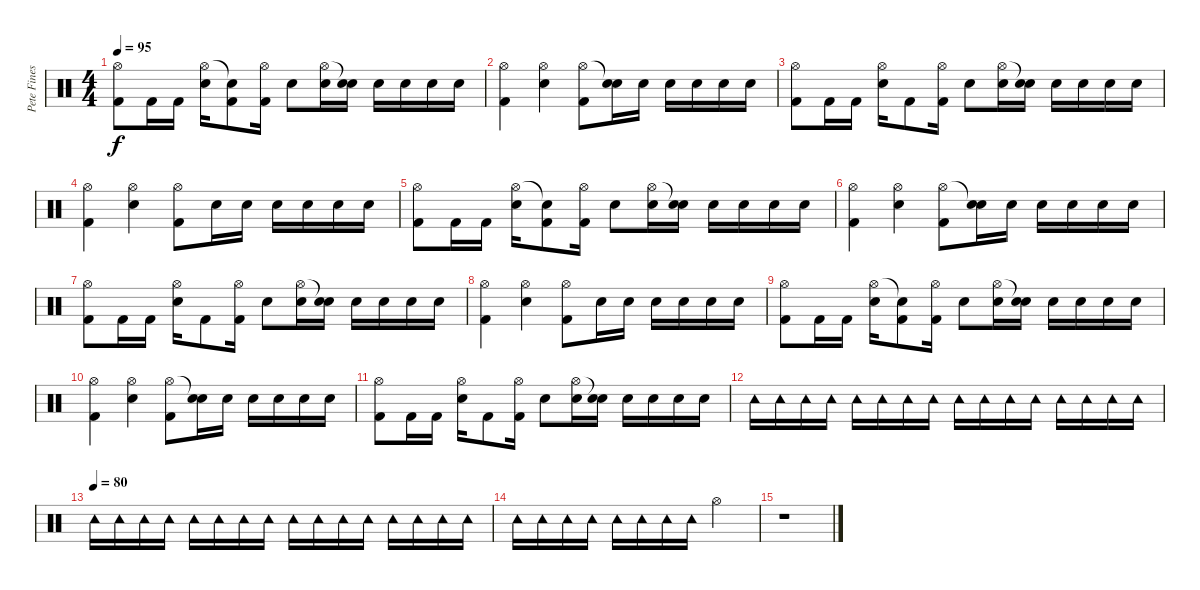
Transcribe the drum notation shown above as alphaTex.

\track ("Pete Finestone" "Pete Fines") {instrument percussion}
\staff {score}
\articulation defaults
\ts (4 4)
\tempo 95
\clef neutral
\ks c
("Hi-Hat (open)" "Kick (hit) 2").8{dy f} "Kick (hit) 2".16 "Kick (hit) 2".16 ("Hi-Hat (open)" "Snare (hit) 2").16 ("Snare (hit)"{t} "Kick (hit) 2").8 ("Hi-Hat (open)" "Kick (hit) 2").16 "Snare (hit) 2".8 ("Hi-Hat (open)" "Electric Snare (hit)").16 ("Snare (hit)"{t} "Electric Snare (hit)").16 "Electric Snare (hit)".16 "Electric Snare (hit)".16 "Electric Snare (hit)".16 "Electric Snare (hit)".16 |
("Hi-Hat (open)" "Kick (hit) 2").4 ("Hi-Hat (open)" "Electric Snare (hit)").4 ("Hi-Hat (open)" "Kick (hit) 2").8 ("Snare (hit)"{t} "Electric Snare (hit)").16 "Electric Snare (hit)".16 "Electric Snare (hit)".16 "Electric Snare (hit)".16 "Electric Snare (hit)".16 "Electric Snare (hit)".16 |
("Hi-Hat (open)" "Kick (hit) 2").8 "Kick (hit) 2".16 "Kick (hit) 2".16 ("Hi-Hat (open)" "Electric Snare (hit)").16 "Kick (hit) 2".8 ("Hi-Hat (open)" "Kick (hit) 2").16 "Electric Snare (hit)".8 ("Hi-Hat (open)" "Electric Snare (hit)").16 ("Snare (hit)"{t} "Electric Snare (hit)").16 "Electric Snare (hit)".16 "Electric Snare (hit)".16 "Electric Snare (hit)".16 "Electric Snare (hit)".16 |
("Kick (hit) 2" "Hi-Hat (open)").4 ("Hi-Hat (open)" "Electric Snare (hit)").4 ("Kick (hit) 2" "Hi-Hat (open)").8 "Electric Snare (hit)".16 "Electric Snare (hit)".16 "Electric Snare (hit)".16 "Electric Snare (hit)".16 "Electric Snare (hit)".16 "Electric Snare (hit)".16 |
("Hi-Hat (open)" "Kick (hit) 2").8 "Kick (hit) 2".16 "Kick (hit) 2".16 ("Hi-Hat (open)" "Snare (hit) 2").16 ("Snare (hit)"{t} "Kick (hit) 2").8 ("Hi-Hat (open)" "Kick (hit) 2").16 "Snare (hit) 2".8 ("Hi-Hat (open)" "Electric Snare (hit)").16 ("Snare (hit)"{t} "Electric Snare (hit)").16 "Electric Snare (hit)".16 "Electric Snare (hit)".16 "Electric Snare (hit)".16 "Electric Snare (hit)".16 |
("Hi-Hat (open)" "Kick (hit) 2").4 ("Hi-Hat (open)" "Electric Snare (hit)").4 ("Hi-Hat (open)" "Kick (hit) 2").8 ("Snare (hit)"{t} "Electric Snare (hit)").16 "Electric Snare (hit)".16 "Electric Snare (hit)".16 "Electric Snare (hit)".16 "Electric Snare (hit)".16 "Electric Snare (hit)".16 |
("Hi-Hat (open)" "Kick (hit) 2").8 "Kick (hit) 2".16 "Kick (hit) 2".16 ("Hi-Hat (open)" "Electric Snare (hit)").16 "Kick (hit) 2".8 ("Hi-Hat (open)" "Kick (hit) 2").16 "Electric Snare (hit)".8 ("Hi-Hat (open)" "Electric Snare (hit)").16 ("Snare (hit)"{t} "Electric Snare (hit)").16 "Electric Snare (hit)".16 "Electric Snare (hit)".16 "Electric Snare (hit)".16 "Electric Snare (hit)".16 |
("Kick (hit) 2" "Hi-Hat (open)").4 ("Hi-Hat (open)" "Electric Snare (hit)").4 ("Kick (hit) 2" "Hi-Hat (open)").8 "Electric Snare (hit)".16 "Electric Snare (hit)".16 "Electric Snare (hit)".16 "Electric Snare (hit)".16 "Electric Snare (hit)".16 "Electric Snare (hit)".16 |
("Hi-Hat (open)" "Kick (hit) 2").8 "Kick (hit) 2".16 "Kick (hit) 2".16 ("Hi-Hat (open)" "Electric Snare (hit)").16 ("Snare (hit)"{t} "Kick (hit) 2").8 ("Hi-Hat (open)" "Kick (hit) 2").16 "Electric Snare (hit)".8 ("Hi-Hat (open)" "Electric Snare (hit)").16 ("Snare (hit)"{t} "Electric Snare (hit)").16 "Electric Snare (hit)".16 "Electric Snare (hit)".16 "Electric Snare (hit)".16 "Electric Snare (hit)".16 |
("Hi-Hat (open)" "Kick (hit) 2").4 ("Hi-Hat (open)" "Electric Snare (hit)").4 ("Hi-Hat (open)" "Kick (hit) 2").8 ("Snare (hit)"{t} "Electric Snare (hit)").16 "Electric Snare (hit)".16 "Electric Snare (hit)".16 "Electric Snare (hit)".16 "Electric Snare (hit)".16 "Electric Snare (hit)".16 |
("Hi-Hat (open)" "Kick (hit) 2").8 "Kick (hit) 2".16 "Kick (hit) 2".16 ("Hi-Hat (open)" "Electric Snare (hit)").16 "Kick (hit) 2".8 ("Hi-Hat (open)" "Kick (hit) 2").16 "Electric Snare (hit)".8 ("Hi-Hat (open)" "Electric Snare (hit)").16 ("Snare (hit)"{t} "Electric Snare (hit)").16 "Electric Snare (hit)".16 "Electric Snare (hit)".16 "Electric Snare (hit)".16 "Electric Snare (hit)".16 |
"Tambourine (hit)".16 "Tambourine (hit)".16 "Tambourine (hit)".16 "Tambourine (hit)".16 "Tambourine (hit)".16 "Tambourine (hit)".16 "Tambourine (hit)".16 "Tambourine (hit)".16 "Tambourine (hit)".16 "Tambourine (hit)".16 "Tambourine (hit)".16 "Tambourine (hit)".16 "Tambourine (hit)".16 "Tambourine (hit)".16 "Tambourine (hit)".16 "Tambourine (hit)".16 |
\tempo (80)
"Tambourine (hit)".16 "Tambourine (hit)".16 "Tambourine (hit)".16 "Tambourine (hit)".16 "Tambourine (hit)".16 "Tambourine (hit)".16 "Tambourine (hit)".16 "Tambourine (hit)".16 "Tambourine (hit)".16 "Tambourine (hit)".16 "Tambourine (hit)".16 "Tambourine (hit)".16 "Tambourine (hit)".16 "Tambourine (hit)".16 "Tambourine (hit)".16 "Tambourine (hit)".16 |
"Tambourine (hit)".16 "Tambourine (hit)".16 "Tambourine (hit)".16 "Tambourine (hit)".16 "Tambourine (hit)".16 "Tambourine (hit)".16 "Tambourine (hit)".16 "Tambourine (hit)".16 "Hi-Hat (open)".2 |
r.1
